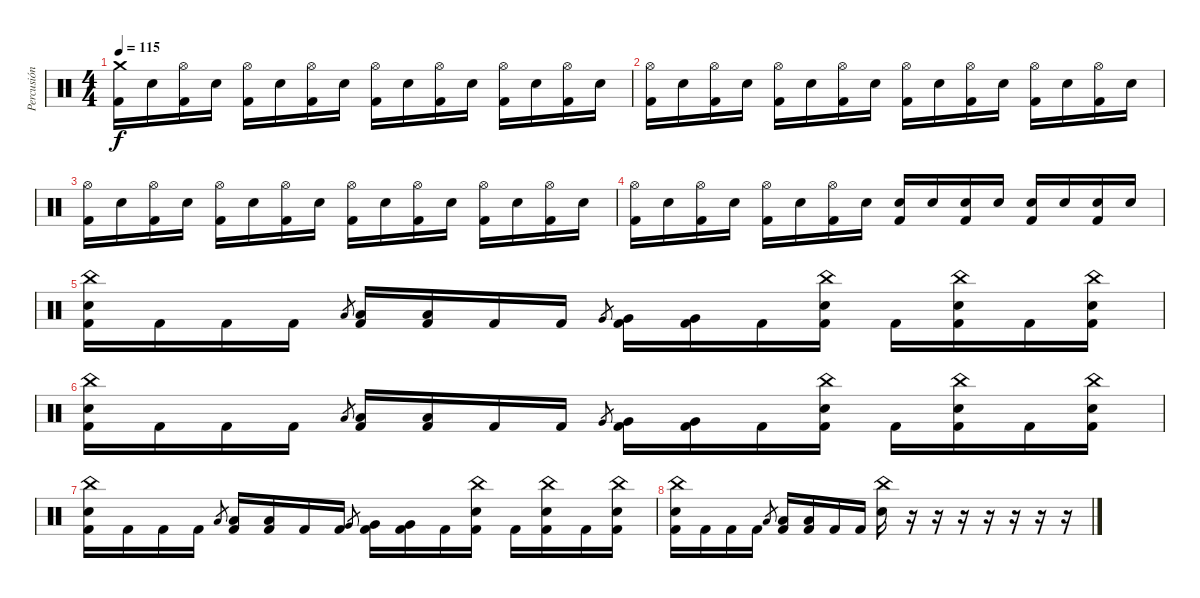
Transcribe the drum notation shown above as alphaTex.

\track ("Percusión" "Percusión") {instrument percussion}
\staff {score}
\articulation defaults
\ts (4 4)
\tempo 115
\clef neutral
\ks c
("Crash medium (hit)" "Kick (hit) 2").16{dy f} "Snare (hit) 2".16 ("Hi-Hat (open)" "Kick (hit) 2").16 "Snare (hit) 2".16 ("Hi-Hat (open)" "Kick (hit) 2").16 "Snare (hit) 2".16 ("Hi-Hat (open)" "Kick (hit) 2").16 "Snare (hit) 2".16 ("Hi-Hat (open)" "Kick (hit) 2").16 "Snare (hit) 2".16 ("Hi-Hat (open)" "Kick (hit) 2").16 "Snare (hit) 2".16 ("Hi-Hat (open)" "Kick (hit) 2").16 "Snare (hit) 2".16 ("Hi-Hat (open)" "Kick (hit) 2").16 "Snare (hit) 2".16 |
("Hi-Hat (open)" "Kick (hit) 2").16 "Snare (hit) 2".16 ("Hi-Hat (open)" "Kick (hit) 2").16 "Snare (hit) 2".16 ("Hi-Hat (open)" "Kick (hit) 2").16 "Snare (hit) 2".16 ("Hi-Hat (open)" "Kick (hit) 2").16 "Snare (hit) 2".16 ("Hi-Hat (open)" "Kick (hit) 2").16 "Snare (hit) 2".16 ("Hi-Hat (open)" "Kick (hit) 2").16 "Snare (hit) 2".16 ("Hi-Hat (open)" "Kick (hit) 2").16 "Snare (hit) 2".16 ("Hi-Hat (open)" "Kick (hit) 2").16 "Snare (hit) 2".16 |
("Hi-Hat (open)" "Kick (hit) 2").16 "Snare (hit) 2".16 ("Hi-Hat (open)" "Kick (hit) 2").16 "Snare (hit) 2".16 ("Hi-Hat (open)" "Kick (hit) 2").16 "Snare (hit) 2".16 ("Hi-Hat (open)" "Kick (hit) 2").16 "Snare (hit) 2".16 ("Hi-Hat (open)" "Kick (hit) 2").16 "Snare (hit) 2".16 ("Hi-Hat (open)" "Kick (hit) 2").16 "Snare (hit) 2".16 ("Hi-Hat (open)" "Kick (hit) 2").16 "Snare (hit) 2".16 ("Hi-Hat (open)" "Kick (hit) 2").16 "Snare (hit) 2".16 |
("Hi-Hat (open)" "Kick (hit) 2").16 "Snare (hit) 2".16 ("Hi-Hat (open)" "Kick (hit) 2").16 "Snare (hit) 2".16 ("Hi-Hat (open)" "Kick (hit) 2").16 "Snare (hit) 2".16 ("Hi-Hat (open)" "Kick (hit) 2").16 "Snare (hit) 2".16 ("Snare (hit) 2" "Kick (hit) 2").16 "Snare (hit) 2".16 ("Snare (hit) 2" "Kick (hit) 2").16 "Snare (hit) 2".16 ("Snare (hit) 2" "Kick (hit) 2").16 "Snare (hit) 2".16 ("Snare (hit) 2" "Kick (hit) 2").16 "Snare (hit) 2".16 |
("China (hit)" "Snare (hit) 2" "Kick (hit) 2").16 "Kick (hit) 2".16 "Kick (hit) 2".16 "Kick (hit) 2".16 "Low Tom (hit)".8{gr} ("Low Tom (hit)" "Kick (hit) 2").16 ("Low Tom (hit)" "Kick (hit) 2").16 "Kick (hit) 2".16 "Kick (hit) 2".16 "Very Low Tom (hit)".8{gr} ("Very Low Tom (hit)" "Kick (hit) 2").16 ("Very Low Tom (hit)" "Kick (hit) 2").16 "Kick (hit) 2".16 ("China (hit)" "Snare (hit) 2" "Kick (hit) 2").16 "Kick (hit) 2".16 ("China (hit)" "Snare (hit) 2" "Kick (hit) 2").16 "Kick (hit) 2".16 ("China (hit)" "Snare (hit) 2" "Kick (hit) 2").16 |
("China (hit)" "Snare (hit) 2" "Kick (hit) 2").16 "Kick (hit) 2".16 "Kick (hit) 2".16 "Kick (hit) 2".16 "Low Tom (hit)".8{gr} ("Low Tom (hit)" "Kick (hit) 2").16 ("Low Tom (hit)" "Kick (hit) 2").16 "Kick (hit) 2".16 "Kick (hit) 2".16 "Very Low Tom (hit)".8{gr} ("Very Low Tom (hit)" "Kick (hit) 2").16 ("Very Low Tom (hit)" "Kick (hit) 2").16 "Kick (hit) 2".16 ("China (hit)" "Snare (hit) 2" "Kick (hit) 2").16 "Kick (hit) 2".16 ("China (hit)" "Snare (hit) 2" "Kick (hit) 2").16 "Kick (hit) 2".16 ("China (hit)" "Snare (hit) 2" "Kick (hit) 2").16 |
("China (hit)" "Snare (hit) 2" "Kick (hit) 2").16 "Kick (hit) 2".16 "Kick (hit) 2".16 "Kick (hit) 2".16 "Low Tom (hit)".8{gr} ("Low Tom (hit)" "Kick (hit) 2").16 ("Low Tom (hit)" "Kick (hit) 2").16 "Kick (hit) 2".16 "Kick (hit) 2".16 "Very Low Tom (hit)".8{gr} ("Very Low Tom (hit)" "Kick (hit) 2").16 ("Very Low Tom (hit)" "Kick (hit) 2").16 "Kick (hit) 2".16 ("China (hit)" "Snare (hit) 2" "Kick (hit) 2").16 "Kick (hit) 2".16 ("China (hit)" "Snare (hit) 2" "Kick (hit) 2").16 "Kick (hit) 2".16 ("China (hit)" "Snare (hit) 2" "Kick (hit) 2").16 |
("China (hit)" "Snare (hit) 2" "Kick (hit) 2").16 "Kick (hit) 2".16 "Kick (hit) 2".16 "Kick (hit) 2".16 "Low Tom (hit)".8{gr} ("Low Tom (hit)" "Kick (hit) 2").16 ("Low Tom (hit)" "Kick (hit) 2").16 "Kick (hit) 2".16 "Kick (hit) 2".16 ("China (hit)" "Snare (hit) 2").16 r.16 r.16 r.16 r.16 r.16 r.16 r.16
